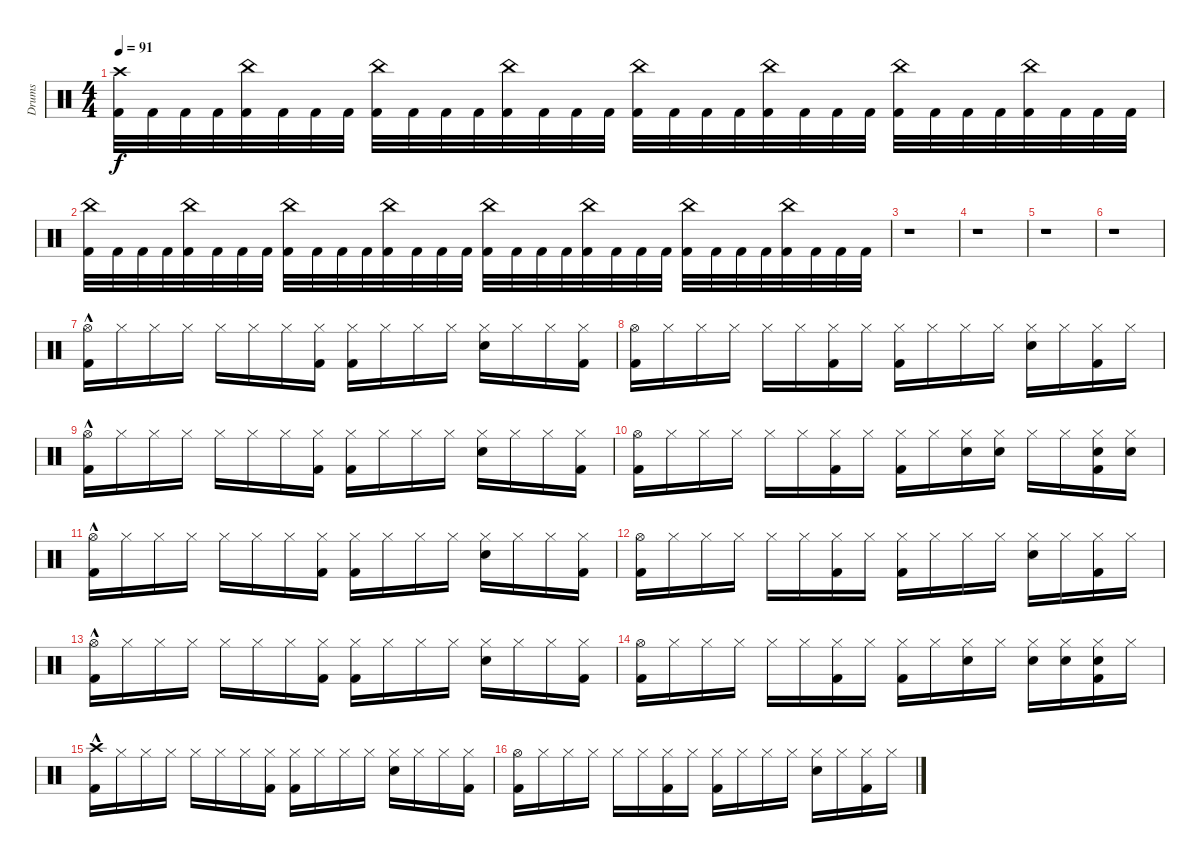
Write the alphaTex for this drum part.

\track ("Drums" "Drums") {instrument percussion}
\staff {score}
\articulation defaults
\ts (4 4)
\tempo 91
\clef neutral
\ks c
("Crash high (hit)" "Kick (hit) 2").32{dy f} "Kick (hit) 2".32 "Kick (hit) 2".32 "Kick (hit) 2".32 ("Kick (hit) 2" "China (hit)").32 "Kick (hit) 2".32 "Kick (hit) 2".32 "Kick (hit) 2".32 ("Kick (hit) 2" "China (hit)").32 "Kick (hit) 2".32 "Kick (hit) 2".32 "Kick (hit) 2".32 ("Kick (hit) 2" "China (hit)").32 "Kick (hit) 2".32 "Kick (hit) 2".32 "Kick (hit) 2".32 ("Kick (hit) 2" "China (hit)").32 "Kick (hit) 2".32 "Kick (hit) 2".32 "Kick (hit) 2".32 ("Kick (hit) 2" "China (hit)").32 "Kick (hit) 2".32 "Kick (hit) 2".32 "Kick (hit) 2".32 ("Kick (hit) 2" "China (hit)").32 "Kick (hit) 2".32 "Kick (hit) 2".32 "Kick (hit) 2".32 ("Kick (hit) 2" "China (hit)").32 "Kick (hit) 2".32 "Kick (hit) 2".32 "Kick (hit) 2".32 |
("Kick (hit) 2" "China (hit)").32 "Kick (hit) 2".32 "Kick (hit) 2".32 "Kick (hit) 2".32 ("Kick (hit) 2" "China (hit)").32 "Kick (hit) 2".32 "Kick (hit) 2".32 "Kick (hit) 2".32 ("Kick (hit) 2" "China (hit)").32 "Kick (hit) 2".32 "Kick (hit) 2".32 "Kick (hit) 2".32 ("Kick (hit) 2" "China (hit)").32 "Kick (hit) 2".32 "Kick (hit) 2".32 "Kick (hit) 2".32 ("Kick (hit) 2" "China (hit)").32 "Kick (hit) 2".32 "Kick (hit) 2".32 "Kick (hit) 2".32 ("Kick (hit) 2" "China (hit)").32 "Kick (hit) 2".32 "Kick (hit) 2".32 "Kick (hit) 2".32 ("Kick (hit) 2" "China (hit)").32 "Kick (hit) 2".32 "Kick (hit) 2".32 "Kick (hit) 2".32 ("Kick (hit) 2" "China (hit)").32 "Kick (hit) 2".32 "Kick (hit) 2".32 "Kick (hit) 2".32 |
r.1 |
r.1 |
r.1 |
r.1 |
("Hi-Hat (open)" "Kick (hit) 2"{hac}).16 "Hi-Hat (closed)".16 "Hi-Hat (closed)".16 "Hi-Hat (closed)".16 "Hi-Hat (closed)".16 "Hi-Hat (closed)".16 "Hi-Hat (closed)".16 ("Hi-Hat (closed)" "Kick (hit) 2").16 ("Hi-Hat (closed)" "Kick (hit) 2").16 "Hi-Hat (closed)".16 "Hi-Hat (closed)".16 "Hi-Hat (closed)".16 ("Snare (hit) 2" "Hi-Hat (closed)").16 "Hi-Hat (closed)".16 "Hi-Hat (closed)".16 ("Kick (hit) 2" "Hi-Hat (closed)").16 |
("Hi-Hat (open)" "Kick (hit) 2").16 "Hi-Hat (closed)".16 "Hi-Hat (closed)".16 "Hi-Hat (closed)".16 "Hi-Hat (closed)".16 "Hi-Hat (closed)".16 ("Kick (hit) 2" "Hi-Hat (closed)").16 "Hi-Hat (closed)".16 ("Kick (hit) 2" "Hi-Hat (closed)").16 "Hi-Hat (closed)".16 "Hi-Hat (closed)".16 "Hi-Hat (closed)".16 ("Snare (hit) 2" "Hi-Hat (closed)").16 "Hi-Hat (closed)".16 ("Kick (hit) 2" "Hi-Hat (closed)").16 "Hi-Hat (closed)".16 |
("Hi-Hat (open)" "Kick (hit) 2"{hac}).16 "Hi-Hat (closed)".16 "Hi-Hat (closed)".16 "Hi-Hat (closed)".16 "Hi-Hat (closed)".16 "Hi-Hat (closed)".16 "Hi-Hat (closed)".16 ("Hi-Hat (closed)" "Kick (hit) 2").16 ("Hi-Hat (closed)" "Kick (hit) 2").16 "Hi-Hat (closed)".16 "Hi-Hat (closed)".16 "Hi-Hat (closed)".16 ("Snare (hit) 2" "Hi-Hat (closed)").16 "Hi-Hat (closed)".16 "Hi-Hat (closed)".16 ("Kick (hit) 2" "Hi-Hat (closed)").16 |
("Hi-Hat (open)" "Kick (hit) 2").16 "Hi-Hat (closed)".16 "Hi-Hat (closed)".16 "Hi-Hat (closed)".16 "Hi-Hat (closed)".16 "Hi-Hat (closed)".16 ("Kick (hit) 2" "Hi-Hat (closed)").16 "Hi-Hat (closed)".16 ("Kick (hit) 2" "Hi-Hat (closed)").16 "Hi-Hat (closed)".16 ("Snare (hit) 2" "Hi-Hat (closed)").16 ("Snare (hit) 2" "Hi-Hat (closed)").16 "Hi-Hat (closed)".16 "Hi-Hat (closed)".16 ("Snare (hit) 2" "Kick (hit) 2" "Hi-Hat (closed)").16 ("Snare (hit) 2" "Hi-Hat (closed)").16 |
("Hi-Hat (open)" "Kick (hit) 2"{hac}).16 "Hi-Hat (closed)".16 "Hi-Hat (closed)".16 "Hi-Hat (closed)".16 "Hi-Hat (closed)".16 "Hi-Hat (closed)".16 "Hi-Hat (closed)".16 ("Hi-Hat (closed)" "Kick (hit) 2").16 ("Hi-Hat (closed)" "Kick (hit) 2").16 "Hi-Hat (closed)".16 "Hi-Hat (closed)".16 "Hi-Hat (closed)".16 ("Snare (hit) 2" "Hi-Hat (closed)").16 "Hi-Hat (closed)".16 "Hi-Hat (closed)".16 ("Kick (hit) 2" "Hi-Hat (closed)").16 |
("Hi-Hat (open)" "Kick (hit) 2").16 "Hi-Hat (closed)".16 "Hi-Hat (closed)".16 "Hi-Hat (closed)".16 "Hi-Hat (closed)".16 "Hi-Hat (closed)".16 ("Kick (hit) 2" "Hi-Hat (closed)").16 "Hi-Hat (closed)".16 ("Kick (hit) 2" "Hi-Hat (closed)").16 "Hi-Hat (closed)".16 "Hi-Hat (closed)".16 "Hi-Hat (closed)".16 ("Snare (hit) 2" "Hi-Hat (closed)").16 "Hi-Hat (closed)".16 ("Kick (hit) 2" "Hi-Hat (closed)").16 "Hi-Hat (closed)".16 |
("Hi-Hat (open)" "Kick (hit) 2"{hac}).16 "Hi-Hat (closed)".16 "Hi-Hat (closed)".16 "Hi-Hat (closed)".16 "Hi-Hat (closed)".16 "Hi-Hat (closed)".16 "Hi-Hat (closed)".16 ("Hi-Hat (closed)" "Kick (hit) 2").16 ("Hi-Hat (closed)" "Kick (hit) 2").16 "Hi-Hat (closed)".16 "Hi-Hat (closed)".16 "Hi-Hat (closed)".16 ("Snare (hit) 2" "Hi-Hat (closed)").16 "Hi-Hat (closed)".16 "Hi-Hat (closed)".16 ("Kick (hit) 2" "Hi-Hat (closed)").16 |
("Hi-Hat (open)" "Kick (hit) 2").16 "Hi-Hat (closed)".16 "Hi-Hat (closed)".16 "Hi-Hat (closed)".16 "Hi-Hat (closed)".16 "Hi-Hat (closed)".16 ("Kick (hit) 2" "Hi-Hat (closed)").16 "Hi-Hat (closed)".16 ("Kick (hit) 2" "Hi-Hat (closed)").16 "Hi-Hat (closed)".16 ("Snare (hit) 2" "Hi-Hat (closed)").16 "Hi-Hat (closed)".16 ("Snare (hit) 2" "Hi-Hat (closed)").16 ("Snare (hit) 2" "Hi-Hat (closed)").16 ("Snare (hit) 2" "Kick (hit) 2" "Hi-Hat (closed)").16 "Hi-Hat (closed)".16 |
("Crash high (hit)" "Kick (hit) 2"{hac}).16 "Hi-Hat (closed)".16 "Hi-Hat (closed)".16 "Hi-Hat (closed)".16 "Hi-Hat (closed)".16 "Hi-Hat (closed)".16 "Hi-Hat (closed)".16 ("Hi-Hat (closed)" "Kick (hit) 2").16 ("Hi-Hat (closed)" "Kick (hit) 2").16 "Hi-Hat (closed)".16 "Hi-Hat (closed)".16 "Hi-Hat (closed)".16 ("Snare (hit) 2" "Hi-Hat (closed)").16 "Hi-Hat (closed)".16 "Hi-Hat (closed)".16 ("Kick (hit) 2" "Hi-Hat (closed)").16 |
("Hi-Hat (open)" "Kick (hit) 2").16 "Hi-Hat (closed)".16 "Hi-Hat (closed)".16 "Hi-Hat (closed)".16 "Hi-Hat (closed)".16 "Hi-Hat (closed)".16 ("Kick (hit) 2" "Hi-Hat (closed)").16 "Hi-Hat (closed)".16 ("Kick (hit) 2" "Hi-Hat (closed)").16 "Hi-Hat (closed)".16 "Hi-Hat (closed)".16 "Hi-Hat (closed)".16 ("Snare (hit) 2" "Hi-Hat (closed)").16 "Hi-Hat (closed)".16 ("Kick (hit) 2" "Hi-Hat (closed)").16 "Hi-Hat (closed)".16
